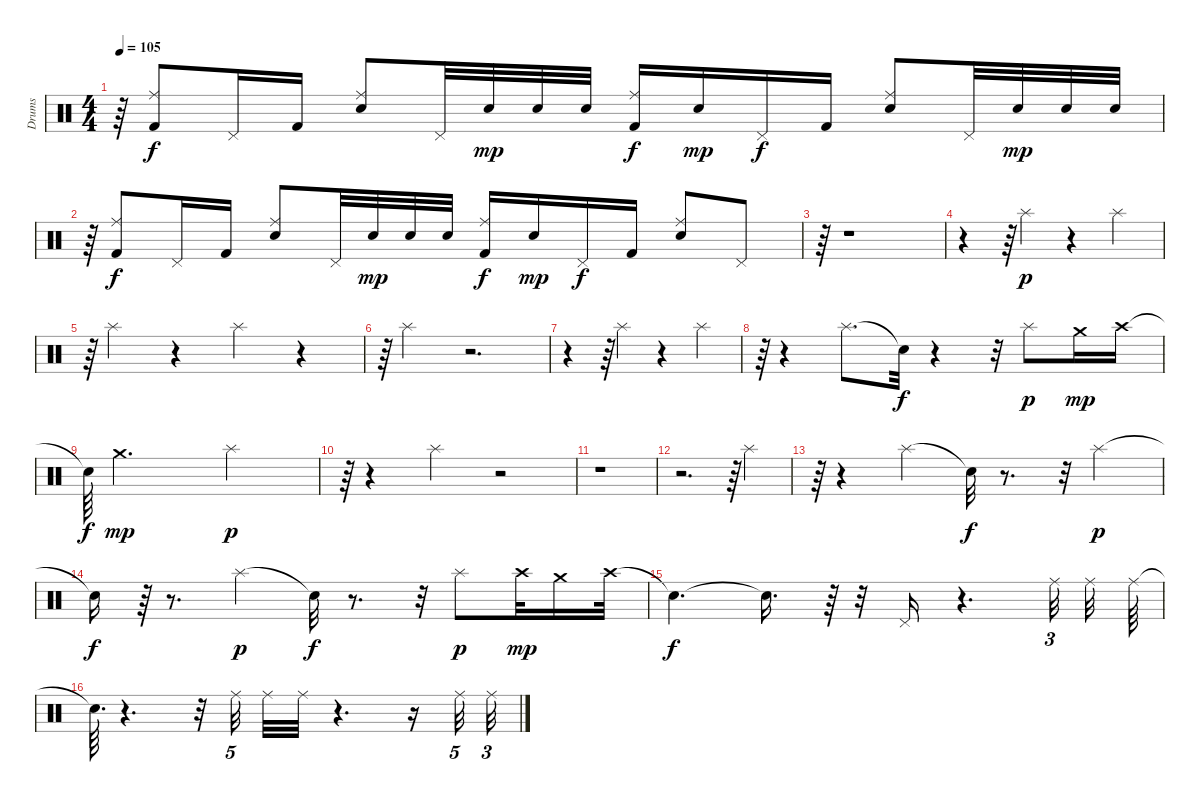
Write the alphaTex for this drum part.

\track ("Drums" "Drums") {instrument percussion}
\staff {score}
\articulation defaults
\ts (4 4)
\tempo 105
\clef neutral
\ks c
r.64{dy mp} ("Kick (hit) 2" "Ride (middle)").8{dy f} "Pedal Hi-Hat (hit)".16 "Kick (hit) 2".16 ("Electric Snare (hit)" "Ride (middle)").8 "Pedal Hi-Hat (hit)".32 "Electric Snare (hit)".32{dy mp} "Electric Snare (hit)".32 "Electric Snare (hit)".32 ("Kick (hit) 2" "Ride (middle)").16{dy f} "Electric Snare (hit)".16{dy mp} "Pedal Hi-Hat (hit)".16{dy f} "Kick (hit) 2".16 ("Electric Snare (hit)" "Ride (middle)").8 "Pedal Hi-Hat (hit)".32 "Electric Snare (hit)".32{dy mp} "Electric Snare (hit)".32 "Electric Snare (hit)".32 |
r.64 ("Kick (hit) 2" "Ride (middle)").8{dy f} "Pedal Hi-Hat (hit)".16 "Kick (hit) 2".16 ("Electric Snare (hit)" "Ride (middle)").8 "Pedal Hi-Hat (hit)".32 "Electric Snare (hit)".32{dy mp} "Electric Snare (hit)".32 "Electric Snare (hit)".32 ("Kick (hit) 2" "Ride (middle)").16{dy f} "Electric Snare (hit)".16{dy mp} "Pedal Hi-Hat (hit)".16{dy f} "Kick (hit) 2".16 ("Electric Snare (hit)" "Ride (middle)").8 "Pedal Hi-Hat (hit)".8 |
r.64 r.1 |
r.4 r.64 "Splash (hit)".4{dy p} r.4 "Splash (hit)".4 |
r.64 "Splash (hit)".4 r.4 "Splash (hit)".4 r.4 |
r.64 "Splash (hit)".4 r.2{d} |
r.4 r.64 "Splash (hit)".4 r.4 "Splash (hit)".4 |
r.64 r.4 "Splash (hit)".8{d} "Snare (hit)"{t}.32{dy f} r.4 r.32 "Splash (hit)".8{dy p} "Crash medium (hit)".16{dy mp} "Crash high (hit)".16 |
"Snare (hit)"{t}.64{dy f} "Crash medium (hit)".2{d dy mp} "Splash (hit)".4{dy p} |
r.64 r.4 "Splash (hit)".4 r.2 |
r.1 |
r.2{d} r.64 "Splash (hit)".4 |
r.64 r.4 "Splash (hit)".4 "Snare (hit)"{t}.32{dy f} r.8{d} r.32 "Splash (hit)".4{dy p} |
"Snare (hit)"{t}.16{dy f} r.64 r.8{d} "Splash (hit)".4{dy p} "Snare (hit)"{t}.32{dy f} r.8{d} r.32 "Splash (hit)".8{dy p} "Crash high (hit)".32{dy mp} "Crash medium (hit)".16 "Crash high (hit)".32 |
"Snare (hit)"{t}.4{d dy f} "Snare (hit)"{t}.16{d} r.64 r.32 "Pedal Hi-Hat (hit)".16 r.4{d} "Ride (middle)".32{tu (3 2)} "Ride (middle)".32 "Ride (middle)".64 |
"Snare (hit)"{t}.64{d} r.4{d} r.32 "Ride (middle)".32{tu (5 4)} "Ride (middle)".32 "Ride (middle)".32 r.4{d} r.16 "Ride (middle)".32{tu (5 4)} "Ride (middle)".32{tu (3 2)}
